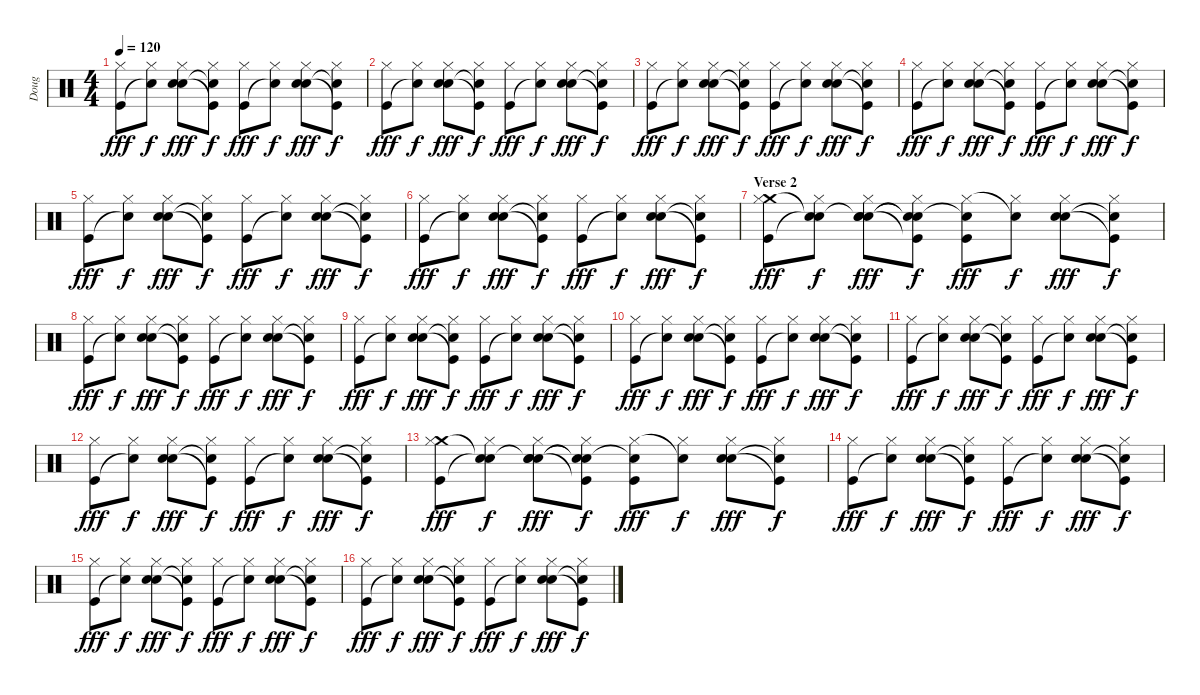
\track ("Doug" "Doug") {instrument percussion}
\staff {score}
\articulation defaults
\ts (4 4)
\tempo 120
\clef neutral
\ks c
("Hi-Hat (closed)" "Kick (hit)").8{dy fff} ("Hi-Hat (closed)" "Snare (hit)"{t}).8{dy f} ("Hand Clap (hit)" "Hi-Hat (closed)" "Snare (hit) 2").8{dy fff} ("Snare (hit)"{t} "Hi-Hat (closed)" "Kick (hit)"{t}).8{dy f} ("Hi-Hat (closed)" "Kick (hit)").8{dy fff} ("Hi-Hat (closed)" "Snare (hit)"{t}).8{dy f} ("Hand Clap (hit)" "Hi-Hat (closed)" "Snare (hit) 2").8{dy fff} ("Snare (hit)"{t} "Hi-Hat (closed)" "Kick (hit)"{t}).8{dy f} |
("Hi-Hat (closed)" "Kick (hit)").8{dy fff} ("Hi-Hat (closed)" "Snare (hit)"{t}).8{dy f} ("Hand Clap (hit)" "Hi-Hat (closed)" "Snare (hit) 2").8{dy fff} ("Snare (hit)"{t} "Hi-Hat (closed)" "Kick (hit)"{t}).8{dy f} ("Hi-Hat (closed)" "Kick (hit)").8{dy fff} ("Hi-Hat (closed)" "Snare (hit)"{t}).8{dy f} ("Hand Clap (hit)" "Hi-Hat (closed)" "Snare (hit) 2").8{dy fff} ("Snare (hit)"{t} "Hi-Hat (closed)" "Kick (hit)"{t}).8{dy f} |
("Hi-Hat (closed)" "Kick (hit)").8{dy fff} ("Hi-Hat (closed)" "Snare (hit)"{t}).8{dy f} ("Hand Clap (hit)" "Hi-Hat (closed)" "Snare (hit) 2").8{dy fff} ("Snare (hit)"{t} "Hi-Hat (closed)" "Kick (hit)"{t}).8{dy f} ("Hi-Hat (closed)" "Kick (hit)").8{dy fff} ("Hi-Hat (closed)" "Snare (hit)"{t}).8{dy f} ("Hand Clap (hit)" "Hi-Hat (closed)" "Snare (hit) 2").8{dy fff} ("Snare (hit)"{t} "Hi-Hat (closed)" "Kick (hit)"{t}).8{dy f} |
("Hi-Hat (closed)" "Kick (hit)").8{dy fff} ("Hi-Hat (closed)" "Snare (hit)"{t}).8{dy f} ("Hand Clap (hit)" "Hi-Hat (closed)" "Snare (hit) 2").8{dy fff} ("Snare (hit)"{t} "Hi-Hat (closed)" "Kick (hit)"{t}).8{dy f} ("Hi-Hat (closed)" "Kick (hit)").8{dy fff} ("Hi-Hat (closed)" "Snare (hit)"{t}).8{dy f} ("Hand Clap (hit)" "Hi-Hat (closed)" "Snare (hit) 2").8{dy fff} ("Snare (hit)"{t} "Hi-Hat (closed)" "Kick (hit)"{t}).8{dy f} |
("Hi-Hat (closed)" "Kick (hit)").8{dy fff} ("Hi-Hat (closed)" "Snare (hit)"{t}).8{dy f} ("Hand Clap (hit)" "Hi-Hat (closed)" "Snare (hit) 2").8{dy fff} ("Snare (hit)"{t} "Hi-Hat (closed)" "Kick (hit)"{t}).8{dy f} ("Hi-Hat (closed)" "Kick (hit)").8{dy fff} ("Hi-Hat (closed)" "Snare (hit)"{t}).8{dy f} ("Hand Clap (hit)" "Hi-Hat (closed)" "Snare (hit) 2").8{dy fff} ("Snare (hit)"{t} "Hi-Hat (closed)" "Kick (hit)"{t}).8{dy f} |
("Hi-Hat (closed)" "Kick (hit)").8{dy fff} ("Hi-Hat (closed)" "Snare (hit)"{t}).8{dy f} ("Hand Clap (hit)" "Hi-Hat (closed)" "Snare (hit) 2").8{dy fff} ("Snare (hit)"{t} "Hi-Hat (closed)" "Kick (hit)"{t}).8{dy f} ("Hi-Hat (closed)" "Kick (hit)").8{dy fff} ("Hi-Hat (closed)" "Snare (hit)"{t}).8{dy f} ("Hand Clap (hit)" "Hi-Hat (closed)" "Snare (hit) 2").8{dy fff} ("Snare (hit)"{t} "Hi-Hat (closed)" "Kick (hit)"{t}).8{dy f} |
\section ("" "Verse 2")
("Crash medium (hit)" "Hi-Hat (closed)" "Kick (hit)").8{dy fff} ("Snare (hit)"{t} "Hi-Hat (closed)" "Snare (hit)"{t}).8{dy f} ("Snare (hit)"{t} "Hi-Hat (closed)" "Snare (hit) 2" "Hand Clap (hit)").8{dy fff} ("Snare (hit)"{t} "Hi-Hat (closed)" "Kick (hit)"{t} "Snare (hit)"{t}).8{dy f} ("Snare (hit)"{t} "Hi-Hat (closed)" "Kick (hit)").8{dy fff} ("Hi-Hat (closed)" "Snare (hit)"{t}).8{dy f} ("Hi-Hat (closed)" "Snare (hit) 2" "Hand Clap (hit)").8{dy fff} ("Hi-Hat (closed)" "Kick (hit)"{t} "Snare (hit)"{t}).8{dy f} |
("Hi-Hat (closed)" "Kick (hit)").8{dy fff} ("Hi-Hat (closed)" "Snare (hit)"{t}).8{dy f} ("Hand Clap (hit)" "Hi-Hat (closed)" "Snare (hit) 2").8{dy fff} ("Snare (hit)"{t} "Hi-Hat (closed)" "Kick (hit)"{t}).8{dy f} ("Hi-Hat (closed)" "Kick (hit)").8{dy fff} ("Hi-Hat (closed)" "Snare (hit)"{t}).8{dy f} ("Hand Clap (hit)" "Hi-Hat (closed)" "Snare (hit) 2").8{dy fff} ("Snare (hit)"{t} "Hi-Hat (closed)" "Kick (hit)"{t}).8{dy f} |
("Hi-Hat (closed)" "Kick (hit)").8{dy fff} ("Hi-Hat (closed)" "Snare (hit)"{t}).8{dy f} ("Hand Clap (hit)" "Hi-Hat (closed)" "Snare (hit) 2").8{dy fff} ("Snare (hit)"{t} "Hi-Hat (closed)" "Kick (hit)"{t}).8{dy f} ("Hi-Hat (closed)" "Kick (hit)").8{dy fff} ("Hi-Hat (closed)" "Snare (hit)"{t}).8{dy f} ("Hand Clap (hit)" "Hi-Hat (closed)" "Snare (hit) 2").8{dy fff} ("Snare (hit)"{t} "Hi-Hat (closed)" "Kick (hit)"{t}).8{dy f} |
("Hi-Hat (closed)" "Kick (hit)").8{dy fff} ("Hi-Hat (closed)" "Snare (hit)"{t}).8{dy f} ("Hand Clap (hit)" "Hi-Hat (closed)" "Snare (hit) 2").8{dy fff} ("Snare (hit)"{t} "Hi-Hat (closed)" "Kick (hit)"{t}).8{dy f} ("Hi-Hat (closed)" "Kick (hit)").8{dy fff} ("Hi-Hat (closed)" "Snare (hit)"{t}).8{dy f} ("Hand Clap (hit)" "Hi-Hat (closed)" "Snare (hit) 2").8{dy fff} ("Snare (hit)"{t} "Hi-Hat (closed)" "Kick (hit)"{t}).8{dy f} |
("Hi-Hat (closed)" "Kick (hit)").8{dy fff} ("Hi-Hat (closed)" "Snare (hit)"{t}).8{dy f} ("Hand Clap (hit)" "Hi-Hat (closed)" "Snare (hit) 2").8{dy fff} ("Snare (hit)"{t} "Hi-Hat (closed)" "Kick (hit)"{t}).8{dy f} ("Hi-Hat (closed)" "Kick (hit)").8{dy fff} ("Hi-Hat (closed)" "Snare (hit)"{t}).8{dy f} ("Hand Clap (hit)" "Hi-Hat (closed)" "Snare (hit) 2").8{dy fff} ("Snare (hit)"{t} "Hi-Hat (closed)" "Kick (hit)"{t}).8{dy f} |
("Hi-Hat (closed)" "Kick (hit)").8{dy fff} ("Hi-Hat (closed)" "Snare (hit)"{t}).8{dy f} ("Hand Clap (hit)" "Hi-Hat (closed)" "Snare (hit) 2").8{dy fff} ("Snare (hit)"{t} "Hi-Hat (closed)" "Kick (hit)"{t}).8{dy f} ("Hi-Hat (closed)" "Kick (hit)").8{dy fff} ("Hi-Hat (closed)" "Snare (hit)"{t}).8{dy f} ("Hand Clap (hit)" "Hi-Hat (closed)" "Snare (hit) 2").8{dy fff} ("Snare (hit)"{t} "Hi-Hat (closed)" "Kick (hit)"{t}).8{dy f} |
("Crash medium (hit)" "Hi-Hat (closed)" "Kick (hit)").8{dy fff} ("Snare (hit)"{t} "Hi-Hat (closed)" "Snare (hit)"{t}).8{dy f} ("Snare (hit)"{t} "Hi-Hat (closed)" "Snare (hit) 2" "Hand Clap (hit)").8{dy fff} ("Snare (hit)"{t} "Hi-Hat (closed)" "Kick (hit)"{t} "Snare (hit)"{t}).8{dy f} ("Snare (hit)"{t} "Hi-Hat (closed)" "Kick (hit)").8{dy fff} ("Hi-Hat (closed)" "Snare (hit)"{t}).8{dy f} ("Hi-Hat (closed)" "Snare (hit) 2" "Hand Clap (hit)").8{dy fff} ("Hi-Hat (closed)" "Kick (hit)"{t} "Snare (hit)"{t}).8{dy f} |
("Hi-Hat (closed)" "Kick (hit)").8{dy fff} ("Hi-Hat (closed)" "Snare (hit)"{t}).8{dy f} ("Hand Clap (hit)" "Hi-Hat (closed)" "Snare (hit) 2").8{dy fff} ("Snare (hit)"{t} "Hi-Hat (closed)" "Kick (hit)"{t}).8{dy f} ("Hi-Hat (closed)" "Kick (hit)").8{dy fff} ("Hi-Hat (closed)" "Snare (hit)"{t}).8{dy f} ("Hand Clap (hit)" "Hi-Hat (closed)" "Snare (hit) 2").8{dy fff} ("Snare (hit)"{t} "Hi-Hat (closed)" "Kick (hit)"{t}).8{dy f} |
("Hi-Hat (closed)" "Kick (hit)").8{dy fff} ("Hi-Hat (closed)" "Snare (hit)"{t}).8{dy f} ("Hand Clap (hit)" "Hi-Hat (closed)" "Snare (hit) 2").8{dy fff} ("Snare (hit)"{t} "Hi-Hat (closed)" "Kick (hit)"{t}).8{dy f} ("Hi-Hat (closed)" "Kick (hit)").8{dy fff} ("Hi-Hat (closed)" "Snare (hit)"{t}).8{dy f} ("Hand Clap (hit)" "Hi-Hat (closed)" "Snare (hit) 2").8{dy fff} ("Snare (hit)"{t} "Hi-Hat (closed)" "Kick (hit)"{t}).8{dy f} |
("Hi-Hat (closed)" "Kick (hit)").8{dy fff} ("Hi-Hat (closed)" "Snare (hit)"{t}).8{dy f} ("Hand Clap (hit)" "Hi-Hat (closed)" "Snare (hit) 2").8{dy fff} ("Snare (hit)"{t} "Hi-Hat (closed)" "Kick (hit)"{t}).8{dy f} ("Hi-Hat (closed)" "Kick (hit)").8{dy fff} ("Hi-Hat (closed)" "Snare (hit)"{t}).8{dy f} ("Hand Clap (hit)" "Hi-Hat (closed)" "Snare (hit) 2").8{dy fff} ("Snare (hit)"{t} "Hi-Hat (closed)" "Kick (hit)"{t}).8{dy f}
